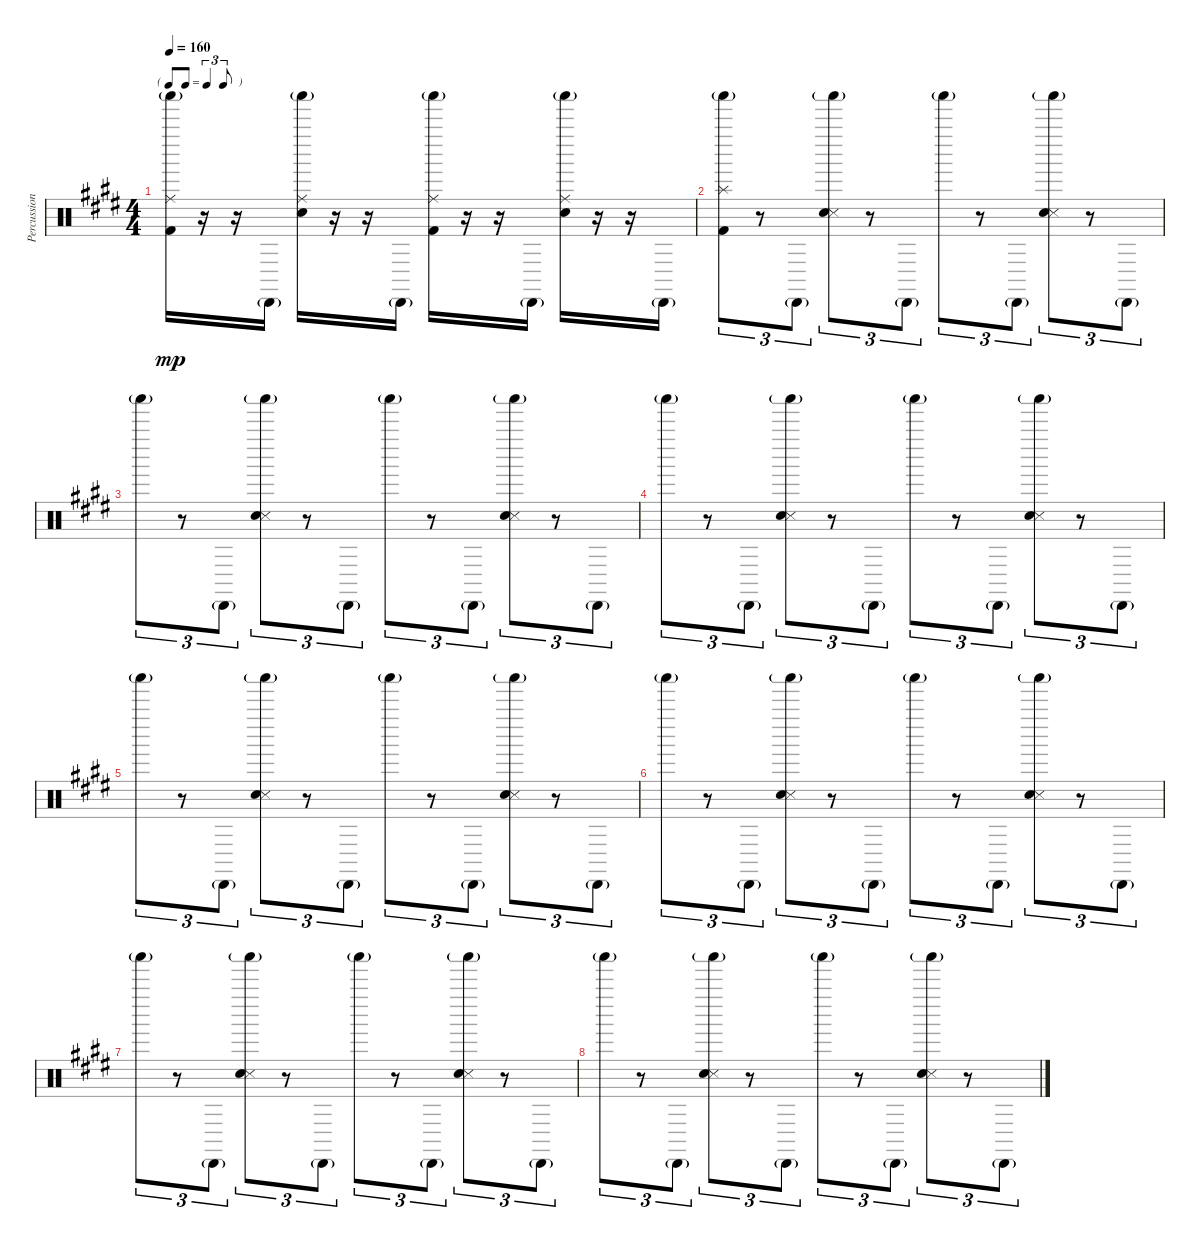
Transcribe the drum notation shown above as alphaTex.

\track ("Percussion" "Percussion") {instrument percussion}
\staff {score}
\articulation defaults
\ts (4 4)
\tf triplet8th
\tempo 160
\clef neutral
\ks e
("Shaker (hit)"{g} "Ride (middle)" "Kick (hit) 2").16{dy mp} r.16 r.16 "Cabasa (hit)"{g}.16 ("Shaker (hit)"{g} "Ride (middle)" "Electric Snare (hit)").16 r.16 r.16 "Cabasa (hit)"{g}.16 ("Shaker (hit)"{g} "Ride (middle)" "Kick (hit) 2").16 r.16 r.16 "Cabasa (hit)"{g}.16 ("Shaker (hit)"{g} "Ride (middle)" "Electric Snare (hit)").16 r.16 r.16 "Cabasa (hit)"{g}.16 |
("Splash (hit)" "Shaker (hit)"{g} "Kick (hit) 2").8{tu (3 2)} r.8{tu (3 2)} "Cabasa (hit)"{g}.8{tu (3 2)} ("Shaker (hit)"{g} "Snare (side stick) 3" "Hand Clap (hit)").8{tu (3 2)} r.8{tu (3 2)} "Cabasa (hit)"{g}.8{tu (3 2)} "Shaker (hit)"{g}.8{tu (3 2)} r.8{tu (3 2)} "Cabasa (hit)"{g}.8{tu (3 2)} ("Shaker (hit)"{g} "Snare (side stick) 3" "Hand Clap (hit)").8{tu (3 2)} r.8{tu (3 2)} "Cabasa (hit)"{g}.8{tu (3 2)} |
"Shaker (hit)"{g}.8{tu (3 2)} r.8{tu (3 2)} "Cabasa (hit)"{g}.8{tu (3 2)} ("Shaker (hit)"{g} "Snare (side stick) 3" "Hand Clap (hit)").8{tu (3 2)} r.8{tu (3 2)} "Cabasa (hit)"{g}.8{tu (3 2)} "Shaker (hit)"{g}.8{tu (3 2)} r.8{tu (3 2)} "Cabasa (hit)"{g}.8{tu (3 2)} ("Shaker (hit)"{g} "Snare (side stick) 3" "Hand Clap (hit)").8{tu (3 2)} r.8{tu (3 2)} "Cabasa (hit)"{g}.8{tu (3 2)} |
"Shaker (hit)"{g}.8{tu (3 2)} r.8{tu (3 2)} "Cabasa (hit)"{g}.8{tu (3 2)} ("Shaker (hit)"{g} "Snare (side stick) 3" "Hand Clap (hit)").8{tu (3 2)} r.8{tu (3 2)} "Cabasa (hit)"{g}.8{tu (3 2)} "Shaker (hit)"{g}.8{tu (3 2)} r.8{tu (3 2)} "Cabasa (hit)"{g}.8{tu (3 2)} ("Shaker (hit)"{g} "Snare (side stick) 3" "Hand Clap (hit)").8{tu (3 2)} r.8{tu (3 2)} "Cabasa (hit)"{g}.8{tu (3 2)} |
"Shaker (hit)"{g}.8{tu (3 2)} r.8{tu (3 2)} "Cabasa (hit)"{g}.8{tu (3 2)} ("Shaker (hit)"{g} "Snare (side stick) 3" "Hand Clap (hit)").8{tu (3 2)} r.8{tu (3 2)} "Cabasa (hit)"{g}.8{tu (3 2)} "Shaker (hit)"{g}.8{tu (3 2)} r.8{tu (3 2)} "Cabasa (hit)"{g}.8{tu (3 2)} ("Shaker (hit)"{g} "Snare (side stick) 3" "Hand Clap (hit)").8{tu (3 2)} r.8{tu (3 2)} "Cabasa (hit)"{g}.8{tu (3 2)} |
"Shaker (hit)"{g}.8{tu (3 2)} r.8{tu (3 2)} "Cabasa (hit)"{g}.8{tu (3 2)} ("Shaker (hit)"{g} "Snare (side stick) 3" "Hand Clap (hit)").8{tu (3 2)} r.8{tu (3 2)} "Cabasa (hit)"{g}.8{tu (3 2)} "Shaker (hit)"{g}.8{tu (3 2)} r.8{tu (3 2)} "Cabasa (hit)"{g}.8{tu (3 2)} ("Shaker (hit)"{g} "Snare (side stick) 3" "Hand Clap (hit)").8{tu (3 2)} r.8{tu (3 2)} "Cabasa (hit)"{g}.8{tu (3 2)} |
"Shaker (hit)"{g}.8{tu (3 2)} r.8{tu (3 2)} "Cabasa (hit)"{g}.8{tu (3 2)} ("Shaker (hit)"{g} "Snare (side stick) 3" "Hand Clap (hit)").8{tu (3 2)} r.8{tu (3 2)} "Cabasa (hit)"{g}.8{tu (3 2)} "Shaker (hit)"{g}.8{tu (3 2)} r.8{tu (3 2)} "Cabasa (hit)"{g}.8{tu (3 2)} ("Shaker (hit)"{g} "Snare (side stick) 3" "Hand Clap (hit)").8{tu (3 2)} r.8{tu (3 2)} "Cabasa (hit)"{g}.8{tu (3 2)} |
"Shaker (hit)"{g}.8{tu (3 2)} r.8{tu (3 2)} "Cabasa (hit)"{g}.8{tu (3 2)} ("Shaker (hit)"{g} "Snare (side stick) 3" "Hand Clap (hit)").8{tu (3 2)} r.8{tu (3 2)} "Cabasa (hit)"{g}.8{tu (3 2)} "Shaker (hit)"{g}.8{tu (3 2)} r.8{tu (3 2)} "Cabasa (hit)"{g}.8{tu (3 2)} ("Shaker (hit)"{g} "Snare (side stick) 3" "Hand Clap (hit)").8{tu (3 2)} r.8{tu (3 2)} "Cabasa (hit)"{g}.8{tu (3 2)}
